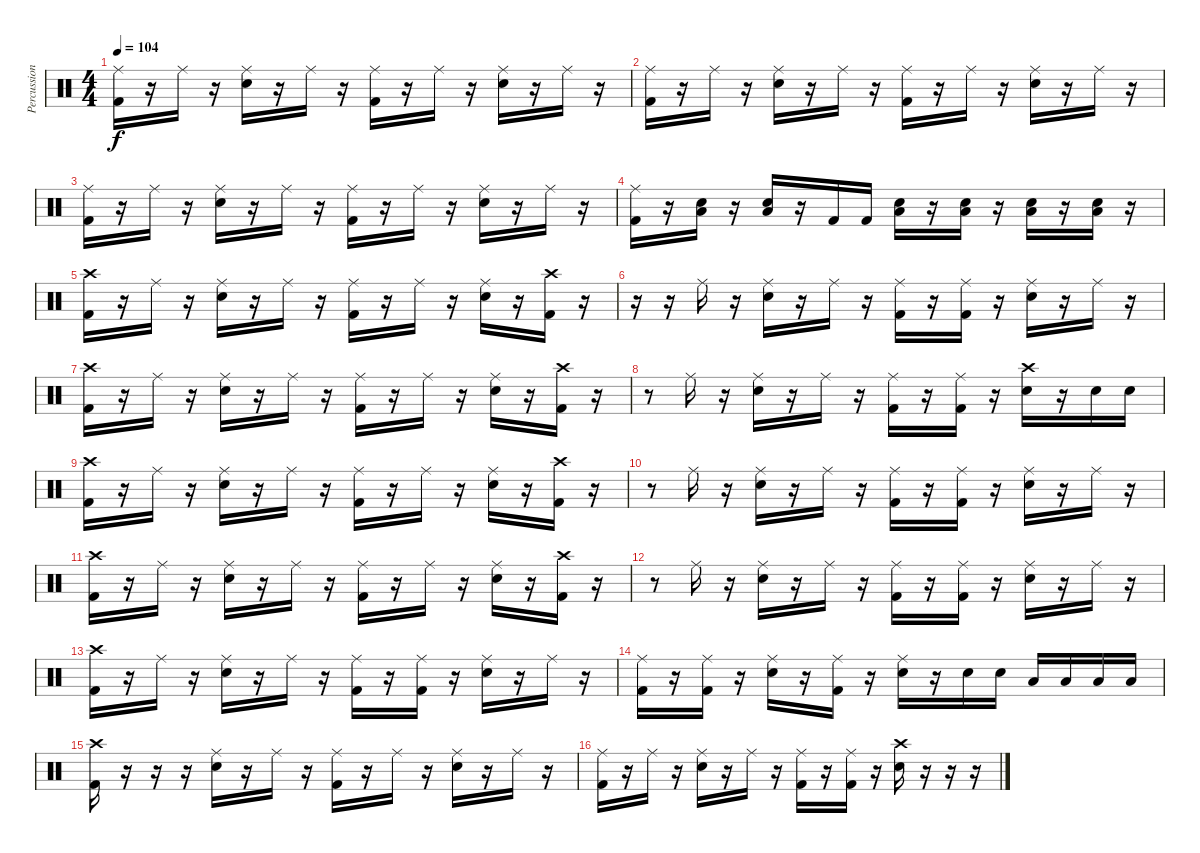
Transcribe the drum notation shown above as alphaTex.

\track ("Percussion" "Percussion") {instrument percussion}
\staff {score}
\articulation defaults
\ts (4 4)
\tempo 104
\clef neutral
\ks c
("Ride (middle)" "Kick (hit) 2").16{dy f} r.16 "Ride (middle)".16 r.16 ("Ride (middle)" "Snare (hit) 2").16 r.16 "Ride (middle)".16 r.16 ("Ride (middle)" "Kick (hit) 2").16 r.16 "Ride (middle)".16 r.16 ("Ride (middle)" "Snare (hit) 2").16 r.16 "Ride (middle)".16 r.16 |
("Ride (middle)" "Kick (hit) 2").16 r.16 "Ride (middle)".16 r.16 ("Ride (middle)" "Snare (hit) 2").16 r.16 "Ride (middle)".16 r.16 ("Ride (middle)" "Kick (hit) 2").16 r.16 "Ride (middle)".16 r.16 ("Ride (middle)" "Snare (hit) 2").16 r.16 "Ride (middle)".16 r.16 |
("Ride (middle)" "Kick (hit) 2").16 r.16 "Ride (middle)".16 r.16 ("Ride (middle)" "Snare (hit) 2").16 r.16 "Ride (middle)".16 r.16 ("Ride (middle)" "Kick (hit) 2").16 r.16 "Ride (middle)".16 r.16 ("Ride (middle)" "Snare (hit) 2").16 r.16 "Ride (middle)".16 r.16 |
("Ride (middle)" "Kick (hit) 2").16 r.16 ("Low Tom (hit)" "Snare (hit) 2").16 r.16 ("Low Tom (hit)" "Snare (hit) 2").16 r.16 "Kick (hit) 2".16 "Kick (hit) 2".16 ("Low Floor Tom (hit)" "Snare (hit) 2").16 r.16 ("Snare (hit) 2" "Low Floor Tom (hit)").16 r.16 ("Snare (hit) 2" "Low Floor Tom (hit)").16 r.16 ("Snare (hit) 2" "Low Floor Tom (hit)").16 r.16 |
("Crash high (hit)" "Kick (hit) 2").16 r.16 "Ride (middle)".16 r.16 ("Ride (middle)" "Snare (hit) 2").16 r.16 "Ride (middle)".16 r.16 ("Ride (middle)" "Kick (hit) 2").16 r.16 "Ride (middle)".16 r.16 ("Ride (middle)" "Snare (hit) 2").16 r.16 ("Crash high (hit)" "Kick (hit) 2").16 r.16 |
r.16 r.16 "Ride (middle)".16 r.16 ("Ride (middle)" "Snare (hit) 2").16 r.16 "Ride (middle)".16 r.16 ("Ride (middle)" "Kick (hit) 2").16 r.16 ("Ride (middle)" "Kick (hit) 2").16 r.16 ("Ride (middle)" "Snare (hit) 2").16 r.16 "Ride (middle)".16 r.16 |
("Crash high (hit)" "Kick (hit) 2").16 r.16 "Ride (middle)".16 r.16 ("Ride (middle)" "Snare (hit) 2").16 r.16 "Ride (middle)".16 r.16 ("Ride (middle)" "Kick (hit) 2").16 r.16 "Ride (middle)".16 r.16 ("Ride (middle)" "Snare (hit) 2").16 r.16 ("Crash high (hit)" "Kick (hit) 2").16 r.16 |
r.8 "Ride (middle)".16 r.16 ("Ride (middle)" "Snare (hit) 2").16 r.16 "Ride (middle)".16 r.16 ("Ride (middle)" "Kick (hit) 2").16 r.16 ("Ride (middle)" "Kick (hit) 2").16 r.16 ("Crash high (hit)" "Snare (hit) 2").16 r.16 "Snare (hit) 2".16 "Snare (hit) 2".16 |
("Crash high (hit)" "Kick (hit) 2").16 r.16 "Ride (middle)".16 r.16 ("Ride (middle)" "Snare (hit) 2").16 r.16 "Ride (middle)".16 r.16 ("Ride (middle)" "Kick (hit) 2").16 r.16 "Ride (middle)".16 r.16 ("Ride (middle)" "Snare (hit) 2").16 r.16 ("Crash high (hit)" "Kick (hit) 2").16 r.16 |
r.8 "Ride (middle)".16 r.16 ("Ride (middle)" "Snare (hit) 2").16 r.16 "Ride (middle)".16 r.16 ("Ride (middle)" "Kick (hit) 2").16 r.16 ("Ride (middle)" "Kick (hit) 2").16 r.16 ("Ride (middle)" "Snare (hit) 2").16 r.16 "Ride (middle)".16 r.16 |
("Crash high (hit)" "Kick (hit) 2").16 r.16 "Ride (middle)".16 r.16 ("Ride (middle)" "Snare (hit) 2").16 r.16 "Ride (middle)".16 r.16 ("Ride (middle)" "Kick (hit) 2").16 r.16 "Ride (middle)".16 r.16 ("Ride (middle)" "Snare (hit) 2").16 r.16 ("Crash high (hit)" "Kick (hit) 2").16 r.16 |
r.8 "Ride (middle)".16 r.16 ("Ride (middle)" "Snare (hit) 2").16 r.16 "Ride (middle)".16 r.16 ("Ride (middle)" "Kick (hit) 2").16 r.16 ("Ride (middle)" "Kick (hit) 2").16 r.16 ("Ride (middle)" "Snare (hit) 2").16 r.16 "Ride (middle)".16 r.16 |
("Crash high (hit)" "Kick (hit) 2").16 r.16 "Ride (middle)".16 r.16 ("Ride (middle)" "Snare (hit) 2").16 r.16 "Ride (middle)".16 r.16 ("Ride (middle)" "Kick (hit) 2").16 r.16 ("Ride (middle)" "Kick (hit) 2").16 r.16 ("Ride (middle)" "Snare (hit) 2").16 r.16 "Ride (middle)".16 r.16 |
("Ride (middle)" "Kick (hit) 2").16 r.16 ("Ride (middle)" "Kick (hit) 2").16 r.16 ("Ride (middle)" "Snare (hit) 2").16 r.16 ("Ride (middle)" "Kick (hit) 2").16 r.16 ("Ride (middle)" "Snare (hit) 2").16 r.16 "Snare (hit) 2".16 "Snare (hit) 2".16 "Low Tom (hit)".16 "Low Tom (hit)".16 "Low Floor Tom (hit)".16 "Low Floor Tom (hit)".16 |
("Crash high (hit)" "Kick (hit) 2").16 r.16 r.16 r.16 ("Ride (middle)" "Snare (hit) 2").16 r.16 "Ride (middle)".16 r.16 ("Ride (middle)" "Kick (hit) 2").16 r.16 "Ride (middle)".16 r.16 ("Ride (middle)" "Snare (hit) 2").16 r.16 "Ride (middle)".16 r.16 |
("Ride (middle)" "Kick (hit) 2").16 r.16 "Ride (middle)".16 r.16 ("Ride (middle)" "Snare (hit) 2").16 r.16 "Ride (middle)".16 r.16 ("Ride (middle)" "Kick (hit) 2").16 r.16 ("Ride (middle)" "Kick (hit) 2").16 r.16 ("Crash high (hit)" "Snare (hit) 2").16 r.16 r.16 r.16
